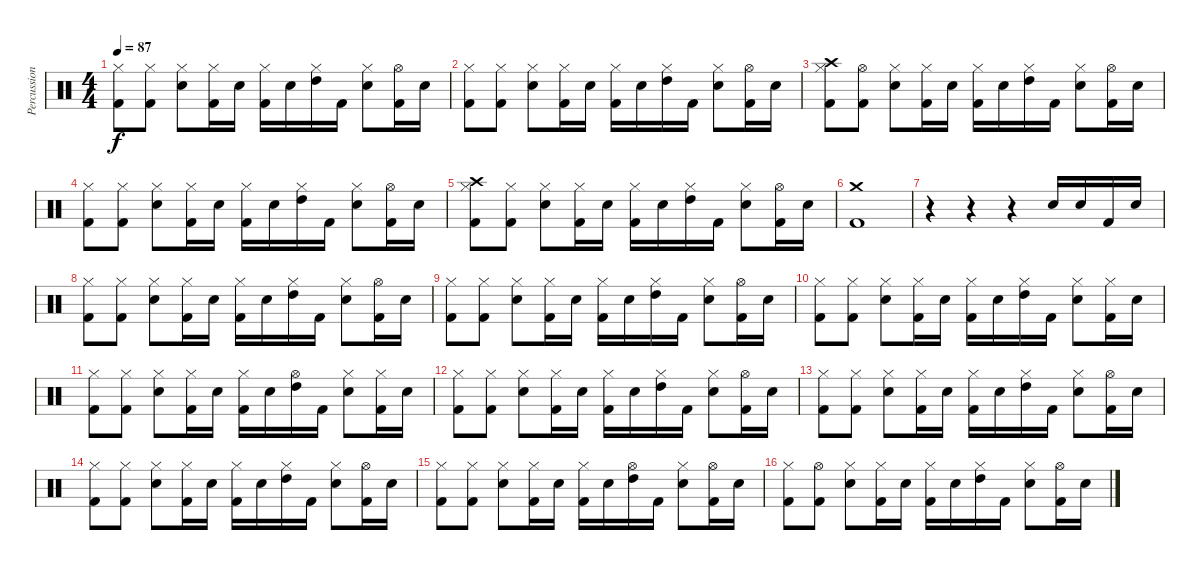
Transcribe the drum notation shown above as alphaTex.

\track ("Percussions" "Percussion") {instrument percussion}
\staff {score}
\articulation defaults
\ts (4 4)
\tempo 87
\clef neutral
\ks c
("Hi-Hat (closed)" "Kick (hit) 2").8{dy f} ("Hi-Hat (closed)" "Kick (hit) 2").8 ("Hi-Hat (closed)" "Electric Snare (hit)").8 ("Hi-Hat (closed)" "Kick (hit) 2").16 "Electric Snare (hit)".16 ("Hi-Hat (closed)" "Kick (hit) 2").16 "Electric Snare (hit)".16 ("Hi-Hat (closed)" "High Tom (hit)").16 "Kick (hit) 2".16 ("Hi-Hat (closed)" "Electric Snare (hit)").8 ("Hi-Hat (open)" "Kick (hit) 2").16 "Electric Snare (hit)".16 |
("Hi-Hat (closed)" "Kick (hit) 2").8 ("Hi-Hat (closed)" "Kick (hit) 2").8 ("Hi-Hat (closed)" "Electric Snare (hit)").8 ("Hi-Hat (closed)" "Kick (hit) 2").16 "Electric Snare (hit)".16 ("Hi-Hat (closed)" "Kick (hit) 2").16 "Electric Snare (hit)".16 ("Hi-Hat (closed)" "High Tom (hit)").16 "Kick (hit) 2".16 ("Hi-Hat (closed)" "Electric Snare (hit)").8 ("Hi-Hat (open)" "Kick (hit) 2").16 "Electric Snare (hit)".16 |
("Crash high (hit)" "Hi-Hat (closed)" "Kick (hit) 2").8 ("Hi-Hat (open)" "Kick (hit) 2").8 ("Hi-Hat (closed)" "Electric Snare (hit)").8 ("Hi-Hat (closed)" "Kick (hit) 2").16 "Electric Snare (hit)".16 ("Hi-Hat (closed)" "Kick (hit) 2").16 "Electric Snare (hit)".16 ("Hi-Hat (closed)" "High Tom (hit)").16 "Kick (hit) 2".16 ("Hi-Hat (closed)" "Electric Snare (hit)").8 ("Hi-Hat (open)" "Kick (hit) 2").16 "Electric Snare (hit)".16 |
("Hi-Hat (closed)" "Kick (hit) 2").8 ("Hi-Hat (closed)" "Kick (hit) 2").8 ("Hi-Hat (closed)" "Electric Snare (hit)").8 ("Hi-Hat (closed)" "Kick (hit) 2").16 "Electric Snare (hit)".16 ("Hi-Hat (closed)" "Kick (hit) 2").16 "Electric Snare (hit)".16 ("Hi-Hat (closed)" "High Tom (hit)").16 "Kick (hit) 2".16 ("Hi-Hat (closed)" "Electric Snare (hit)").8 ("Hi-Hat (open)" "Kick (hit) 2").16 "Electric Snare (hit)".16 |
("Crash high (hit)" "Hi-Hat (closed)" "Kick (hit) 2").8 ("Hi-Hat (closed)" "Kick (hit) 2").8 ("Hi-Hat (closed)" "Electric Snare (hit)").8 ("Hi-Hat (closed)" "Kick (hit) 2").16 "Electric Snare (hit)".16 ("Hi-Hat (closed)" "Kick (hit) 2").16 "Electric Snare (hit)".16 ("Hi-Hat (closed)" "High Tom (hit)").16 "Kick (hit) 2".16 ("Hi-Hat (closed)" "Electric Snare (hit)").8 ("Hi-Hat (open)" "Kick (hit) 2").16 "Electric Snare (hit)".16 |
("Crash medium (hit)" "Kick (hit) 2").1 |
r.4 r.4 r.4 "Electric Snare (hit)".16 "Electric Snare (hit)".16 "Kick (hit) 2".16 "Electric Snare (hit)".16 |
("Hi-Hat (closed)" "Kick (hit) 2").8 ("Hi-Hat (closed)" "Kick (hit) 2").8 ("Hi-Hat (closed)" "Electric Snare (hit)").8 ("Hi-Hat (closed)" "Kick (hit) 2").16 "Electric Snare (hit)".16 ("Hi-Hat (closed)" "Kick (hit) 2").16 "Electric Snare (hit)".16 ("Hi-Hat (closed)" "High Tom (hit)").16 "Kick (hit) 2".16 ("Hi-Hat (closed)" "Electric Snare (hit)").8 ("Hi-Hat (open)" "Kick (hit) 2").16 "Electric Snare (hit)".16 |
("Hi-Hat (closed)" "Kick (hit) 2").8 ("Hi-Hat (closed)" "Kick (hit) 2").8 ("Hi-Hat (closed)" "Electric Snare (hit)").8 ("Hi-Hat (closed)" "Kick (hit) 2").16 "Electric Snare (hit)".16 ("Hi-Hat (closed)" "Kick (hit) 2").16 "Electric Snare (hit)".16 ("Hi-Hat (closed)" "High Tom (hit)").16 "Kick (hit) 2".16 ("Hi-Hat (closed)" "Electric Snare (hit)").8 ("Hi-Hat (open)" "Kick (hit) 2").16 "Electric Snare (hit)".16 |
("Hi-Hat (closed)" "Kick (hit) 2").8 ("Hi-Hat (closed)" "Kick (hit) 2").8 ("Hi-Hat (closed)" "Electric Snare (hit)").8 ("Hi-Hat (closed)" "Kick (hit) 2").16 "Electric Snare (hit)".16 ("Hi-Hat (closed)" "Kick (hit) 2").16 "Electric Snare (hit)".16 ("Hi-Hat (closed)" "High Tom (hit)").16 "Kick (hit) 2".16 ("Hi-Hat (closed)" "Electric Snare (hit)").8 ("Hi-Hat (closed)" "Kick (hit) 2").16 "Electric Snare (hit)".16 |
("Hi-Hat (closed)" "Kick (hit) 2").8 ("Hi-Hat (closed)" "Kick (hit) 2").8 ("Hi-Hat (closed)" "Electric Snare (hit)").8 ("Hi-Hat (closed)" "Kick (hit) 2").16 "Electric Snare (hit)".16 ("Hi-Hat (closed)" "Kick (hit) 2").16 "Electric Snare (hit)".16 ("Hi-Hat (open)" "High Tom (hit)").16 "Kick (hit) 2".16 ("Hi-Hat (closed)" "Electric Snare (hit)").8 ("Hi-Hat (closed)" "Kick (hit) 2").16 "Electric Snare (hit)".16 |
("Hi-Hat (closed)" "Kick (hit) 2").8 ("Hi-Hat (closed)" "Kick (hit) 2").8 ("Hi-Hat (closed)" "Electric Snare (hit)").8 ("Hi-Hat (closed)" "Kick (hit) 2").16 "Electric Snare (hit)".16 ("Hi-Hat (closed)" "Kick (hit) 2").16 "Electric Snare (hit)".16 ("Hi-Hat (closed)" "High Tom (hit)").16 "Kick (hit) 2".16 ("Hi-Hat (closed)" "Electric Snare (hit)").8 ("Hi-Hat (open)" "Kick (hit) 2").16 "Electric Snare (hit)".16 |
("Hi-Hat (closed)" "Kick (hit) 2").8 ("Hi-Hat (closed)" "Kick (hit) 2").8 ("Hi-Hat (closed)" "Electric Snare (hit)").8 ("Hi-Hat (closed)" "Kick (hit) 2").16 "Electric Snare (hit)".16 ("Hi-Hat (closed)" "Kick (hit) 2").16 "Electric Snare (hit)".16 ("Hi-Hat (closed)" "High Tom (hit)").16 "Kick (hit) 2".16 ("Hi-Hat (closed)" "Electric Snare (hit)").8 ("Hi-Hat (open)" "Kick (hit) 2").16 "Electric Snare (hit)".16 |
("Hi-Hat (closed)" "Kick (hit) 2").8 ("Hi-Hat (closed)" "Kick (hit) 2").8 ("Hi-Hat (closed)" "Electric Snare (hit)").8 ("Hi-Hat (closed)" "Kick (hit) 2").16 "Electric Snare (hit)".16 ("Hi-Hat (closed)" "Kick (hit) 2").16 "Electric Snare (hit)".16 ("Hi-Hat (closed)" "High Tom (hit)").16 "Kick (hit) 2".16 ("Hi-Hat (closed)" "Electric Snare (hit)").8 ("Hi-Hat (open)" "Kick (hit) 2").16 "Electric Snare (hit)".16 |
("Hi-Hat (closed)" "Kick (hit) 2").8 ("Hi-Hat (closed)" "Kick (hit) 2").8 ("Hi-Hat (closed)" "Electric Snare (hit)").8 ("Hi-Hat (closed)" "Kick (hit) 2").16 "Electric Snare (hit)".16 ("Hi-Hat (closed)" "Kick (hit) 2").16 "Electric Snare (hit)".16 ("Hi-Hat (open)" "High Tom (hit)").16 "Kick (hit) 2".16 ("Hi-Hat (closed)" "Electric Snare (hit)").8 ("Hi-Hat (open)" "Kick (hit) 2").16 "Electric Snare (hit)".16 |
("Hi-Hat (closed)" "Kick (hit) 2").8 ("Hi-Hat (open)" "Kick (hit) 2").8 ("Hi-Hat (closed)" "Electric Snare (hit)").8 ("Hi-Hat (closed)" "Kick (hit) 2").16 "Electric Snare (hit)".16 ("Hi-Hat (closed)" "Kick (hit) 2").16 "Electric Snare (hit)".16 ("Hi-Hat (closed)" "High Tom (hit)").16 "Kick (hit) 2".16 ("Hi-Hat (closed)" "Electric Snare (hit)").8 ("Hi-Hat (open)" "Kick (hit) 2").16 "Electric Snare (hit)".16
